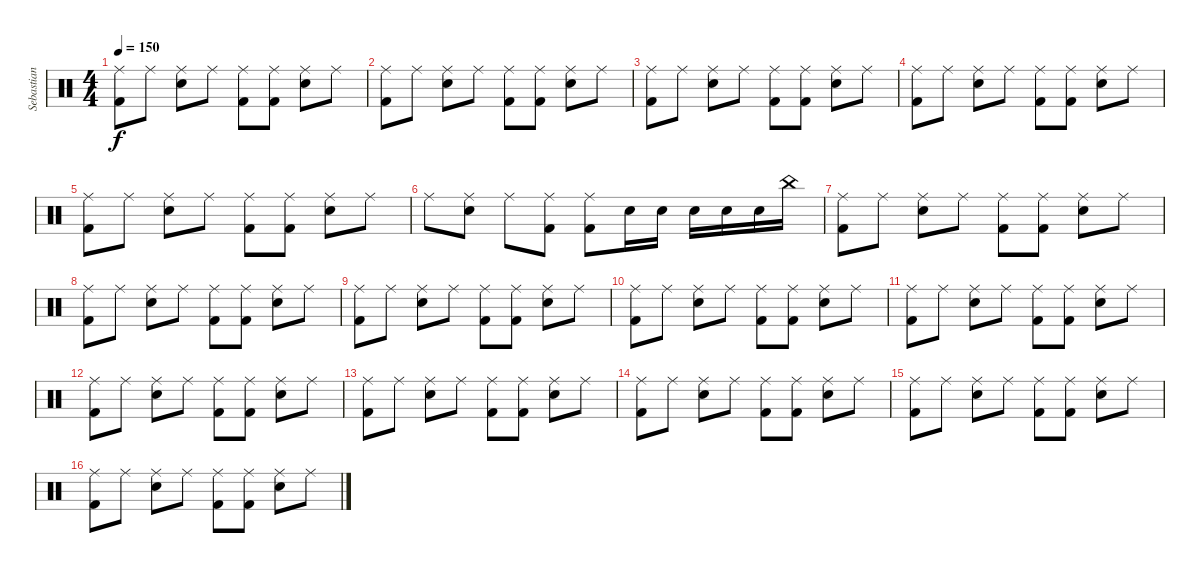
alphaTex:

\track ("Sebastian" "Sebastian") {instrument percussion}
\staff {score}
\articulation defaults
\ts (4 4)
\tempo 150
\clef neutral
\ks c
("Kick (hit) 2" "Ride (middle)").8{dy f} "Ride (middle)".8 ("Electric Snare (hit)" "Ride (middle)").8 "Ride (middle)".8 ("Kick (hit) 2" "Ride (middle)").8 ("Kick (hit) 2" "Ride (middle)").8 ("Electric Snare (hit)" "Ride (middle)").8 "Ride (middle)".8 |
("Kick (hit) 2" "Ride (middle)").8 "Ride (middle)".8 ("Electric Snare (hit)" "Ride (middle)").8 "Ride (middle)".8 ("Kick (hit) 2" "Ride (middle)").8 ("Kick (hit) 2" "Ride (middle)").8 ("Electric Snare (hit)" "Ride (middle)").8 "Ride (middle)".8 |
("Kick (hit) 2" "Ride (middle)").8 "Ride (middle)".8 ("Electric Snare (hit)" "Ride (middle)").8 "Ride (middle)".8 ("Kick (hit) 2" "Ride (middle)").8 ("Kick (hit) 2" "Ride (middle)").8 ("Electric Snare (hit)" "Ride (middle)").8 "Ride (middle)".8 |
("Kick (hit) 2" "Ride (middle)").8 "Ride (middle)".8 ("Electric Snare (hit)" "Ride (middle)").8 "Ride (middle)".8 ("Kick (hit) 2" "Ride (middle)").8 ("Kick (hit) 2" "Ride (middle)").8 ("Electric Snare (hit)" "Ride (middle)").8 "Ride (middle)".8 |
("Kick (hit) 2" "Ride (middle)").8 "Ride (middle)".8 ("Electric Snare (hit)" "Ride (middle)").8 "Ride (middle)".8 ("Kick (hit) 2" "Ride (middle)").8 ("Kick (hit) 2" "Ride (middle)").8 ("Electric Snare (hit)" "Ride (middle)").8 "Ride (middle)".8 |
"Ride (middle)".8 ("Electric Snare (hit)" "Ride (middle)").8 "Ride (middle)".8 ("Kick (hit) 2" "Ride (middle)").8 ("Kick (hit) 2" "Ride (middle)").8 "Electric Snare (hit)".16 "Electric Snare (hit)".16 "Electric Snare (hit)".16 "Electric Snare (hit)".16 "Electric Snare (hit)".16 "China (hit)".16 |
("Kick (hit) 2" "Ride (middle)").8 "Ride (middle)".8 ("Electric Snare (hit)" "Ride (middle)").8 "Ride (middle)".8 ("Kick (hit) 2" "Ride (middle)").8 ("Kick (hit) 2" "Ride (middle)").8 ("Electric Snare (hit)" "Ride (middle)").8 "Ride (middle)".8 |
("Kick (hit) 2" "Ride (middle)").8 "Ride (middle)".8 ("Electric Snare (hit)" "Ride (middle)").8 "Ride (middle)".8 ("Kick (hit) 2" "Ride (middle)").8 ("Kick (hit) 2" "Ride (middle)").8 ("Electric Snare (hit)" "Ride (middle)").8 "Ride (middle)".8 |
("Kick (hit) 2" "Ride (middle)").8 "Ride (middle)".8 ("Electric Snare (hit)" "Ride (middle)").8 "Ride (middle)".8 ("Kick (hit) 2" "Ride (middle)").8 ("Kick (hit) 2" "Ride (middle)").8 ("Electric Snare (hit)" "Ride (middle)").8 "Ride (middle)".8 |
("Kick (hit) 2" "Ride (middle)").8 "Ride (middle)".8 ("Electric Snare (hit)" "Ride (middle)").8 "Ride (middle)".8 ("Kick (hit) 2" "Ride (middle)").8 ("Kick (hit) 2" "Ride (middle)").8 ("Electric Snare (hit)" "Ride (middle)").8 "Ride (middle)".8 |
("Kick (hit) 2" "Ride (middle)").8 "Ride (middle)".8 ("Electric Snare (hit)" "Ride (middle)").8 "Ride (middle)".8 ("Kick (hit) 2" "Ride (middle)").8 ("Kick (hit) 2" "Ride (middle)").8 ("Electric Snare (hit)" "Ride (middle)").8 "Ride (middle)".8 |
("Kick (hit) 2" "Ride (middle)").8 "Ride (middle)".8 ("Electric Snare (hit)" "Ride (middle)").8 "Ride (middle)".8 ("Kick (hit) 2" "Ride (middle)").8 ("Kick (hit) 2" "Ride (middle)").8 ("Electric Snare (hit)" "Ride (middle)").8 "Ride (middle)".8 |
("Kick (hit) 2" "Ride (middle)").8 "Ride (middle)".8 ("Electric Snare (hit)" "Ride (middle)").8 "Ride (middle)".8 ("Kick (hit) 2" "Ride (middle)").8 ("Kick (hit) 2" "Ride (middle)").8 ("Electric Snare (hit)" "Ride (middle)").8 "Ride (middle)".8 |
("Kick (hit) 2" "Ride (middle)").8 "Ride (middle)".8 ("Electric Snare (hit)" "Ride (middle)").8 "Ride (middle)".8 ("Kick (hit) 2" "Ride (middle)").8 ("Kick (hit) 2" "Ride (middle)").8 ("Electric Snare (hit)" "Ride (middle)").8 "Ride (middle)".8 |
("Kick (hit) 2" "Ride (middle)").8 "Ride (middle)".8 ("Electric Snare (hit)" "Ride (middle)").8 "Ride (middle)".8 ("Kick (hit) 2" "Ride (middle)").8 ("Kick (hit) 2" "Ride (middle)").8 ("Electric Snare (hit)" "Ride (middle)").8 "Ride (middle)".8 |
("Kick (hit) 2" "Ride (middle)").8 "Ride (middle)".8 ("Electric Snare (hit)" "Ride (middle)").8 "Ride (middle)".8 ("Kick (hit) 2" "Ride (middle)").8 ("Kick (hit) 2" "Ride (middle)").8 ("Electric Snare (hit)" "Ride (middle)").8 "Ride (middle)".8
